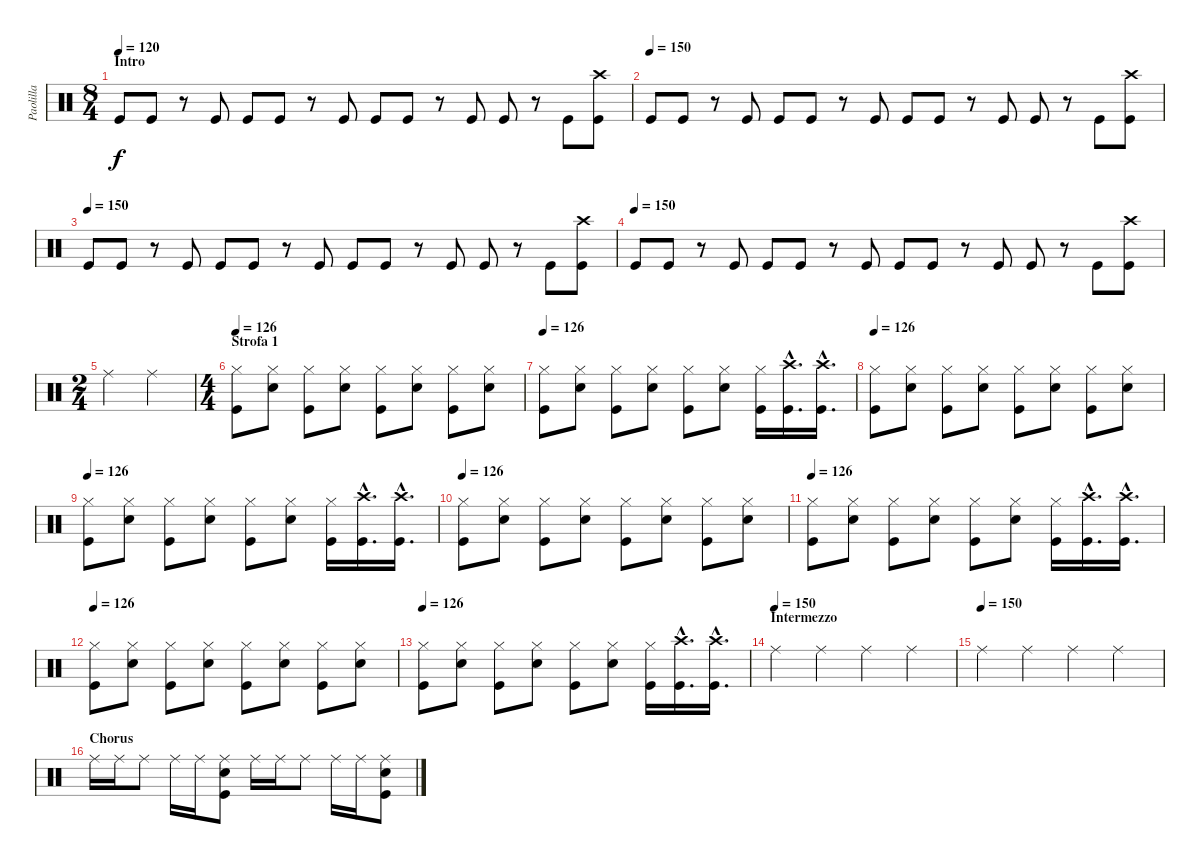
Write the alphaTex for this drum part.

\track ("Paolilla" "Paolilla") {instrument percussion}
\staff {score}
\articulation defaults
\ts (8 4)
\section ("" "Intro")
\tempo 120
\tempo 150
\tempo 120
\clef neutral
\ks c "Kick (hit)".8{dy f} "Kick (hit)".8
r.8 "Kick (hit)".8 "Kick (hit)".8 "Kick (hit)".8 r.8 "Kick (hit)".8 "Kick (hit)".8 "Kick (hit)".8 r.8 "Kick (hit)".8 "Kick (hit)".8 r.8 "Kick (hit)".8 ("Crash high (hit)" "Kick (hit)").8 |
\tempo (150)
"Kick (hit)".8 "Kick (hit)".8 r.8 "Kick (hit)".8 "Kick (hit)".8 "Kick (hit)".8 r.8 "Kick (hit)".8 "Kick (hit)".8 "Kick (hit)".8 r.8 "Kick (hit)".8 "Kick (hit)".8 r.8 "Kick (hit)".8 ("Crash high (hit)" "Kick (hit)").8 |
\tempo (150)
"Kick (hit)".8 "Kick (hit)".8 r.8 "Kick (hit)".8 "Kick (hit)".8 "Kick (hit)".8 r.8 "Kick (hit)".8 "Kick (hit)".8 "Kick (hit)".8 r.8 "Kick (hit)".8 "Kick (hit)".8 r.8 "Kick (hit)".8 ("Crash high (hit)" "Kick (hit)").8 |
\tempo (150)
"Kick (hit)".8 "Kick (hit)".8 r.8 "Kick (hit)".8 "Kick (hit)".8 "Kick (hit)".8 r.8 "Kick (hit)".8 "Kick (hit)".8 "Kick (hit)".8 r.8 "Kick (hit)".8 "Kick (hit)".8 r.8 "Kick (hit)".8 ("Crash high (hit)" "Kick (hit)").8 |
\ts (2 4)
"Ride (middle)".4 "Ride (middle)".4 |
\ts (4 4)
\section ("" "Strofa 1")
\tempo 126
("Hi-Hat (closed)" "Kick (hit)").8 ("Hi-Hat (closed)" "Snare (hit) 2").8 ("Hi-Hat (closed)" "Kick (hit)").8 ("Hi-Hat (closed)" "Snare (hit) 2").8 ("Hi-Hat (closed)" "Kick (hit)").8 ("Hi-Hat (closed)" "Snare (hit) 2").8 ("Hi-Hat (closed)" "Kick (hit)").8 ("Hi-Hat (closed)" "Snare (hit) 2").8 |
\tempo 126
("Hi-Hat (closed)" "Kick (hit)").8 ("Hi-Hat (closed)" "Snare (hit) 2").8 ("Hi-Hat (closed)" "Kick (hit)").8 ("Hi-Hat (closed)" "Snare (hit) 2").8 ("Hi-Hat (closed)" "Kick (hit)").8 ("Hi-Hat (closed)" "Snare (hit) 2").8 ("Hi-Hat (closed)" "Kick (hit)").16 ("Crash high (hit)"{hac} "Kick (hit)"{hac}).16{d} ("Crash high (hit)"{hac} "Kick (hit)"{hac}).16{d} |
\tempo 126
("Hi-Hat (closed)" "Kick (hit)").8 ("Hi-Hat (closed)" "Snare (hit) 2").8 ("Hi-Hat (closed)" "Kick (hit)").8 ("Hi-Hat (closed)" "Snare (hit) 2").8 ("Hi-Hat (closed)" "Kick (hit)").8 ("Hi-Hat (closed)" "Snare (hit) 2").8 ("Hi-Hat (closed)" "Kick (hit)").8 ("Hi-Hat (closed)" "Snare (hit) 2").8 |
\tempo 126
("Hi-Hat (closed)" "Kick (hit)").8 ("Hi-Hat (closed)" "Snare (hit) 2").8 ("Hi-Hat (closed)" "Kick (hit)").8 ("Hi-Hat (closed)" "Snare (hit) 2").8 ("Hi-Hat (closed)" "Kick (hit)").8 ("Hi-Hat (closed)" "Snare (hit) 2").8 ("Hi-Hat (closed)" "Kick (hit)").16 ("Crash high (hit)"{hac} "Kick (hit)"{hac}).16{d} ("Crash high (hit)"{hac} "Kick (hit)"{hac}).16{d} |
\tempo 126
("Hi-Hat (closed)" "Kick (hit)").8 ("Hi-Hat (closed)" "Snare (hit) 2").8 ("Hi-Hat (closed)" "Kick (hit)").8 ("Hi-Hat (closed)" "Snare (hit) 2").8 ("Hi-Hat (closed)" "Kick (hit)").8 ("Hi-Hat (closed)" "Snare (hit) 2").8 ("Hi-Hat (closed)" "Kick (hit)").8 ("Hi-Hat (closed)" "Snare (hit) 2").8 |
\tempo 126
("Hi-Hat (closed)" "Kick (hit)").8 ("Hi-Hat (closed)" "Snare (hit) 2").8 ("Hi-Hat (closed)" "Kick (hit)").8 ("Hi-Hat (closed)" "Snare (hit) 2").8 ("Hi-Hat (closed)" "Kick (hit)").8 ("Hi-Hat (closed)" "Snare (hit) 2").8 ("Hi-Hat (closed)" "Kick (hit)").16 ("Crash high (hit)"{hac} "Kick (hit)"{hac}).16{d} ("Crash high (hit)"{hac} "Kick (hit)"{hac}).16{d} |
\tempo 126
("Hi-Hat (closed)" "Kick (hit)").8 ("Hi-Hat (closed)" "Snare (hit) 2").8 ("Hi-Hat (closed)" "Kick (hit)").8 ("Hi-Hat (closed)" "Snare (hit) 2").8 ("Hi-Hat (closed)" "Kick (hit)").8 ("Hi-Hat (closed)" "Snare (hit) 2").8 ("Hi-Hat (closed)" "Kick (hit)").8 ("Hi-Hat (closed)" "Snare (hit) 2").8 |
\tempo 126
("Hi-Hat (closed)" "Kick (hit)").8 ("Hi-Hat (closed)" "Snare (hit) 2").8 ("Hi-Hat (closed)" "Kick (hit)").8 ("Hi-Hat (closed)" "Snare (hit) 2").8 ("Hi-Hat (closed)" "Kick (hit)").8 ("Hi-Hat (closed)" "Snare (hit) 2").8 ("Hi-Hat (closed)" "Kick (hit)").16 ("Crash high (hit)"{hac} "Kick (hit)"{hac}).16{d} ("Crash high (hit)"{hac} "Kick (hit)"{hac}).16{d} |
\section ("" "Intermezzo")
\tempo (150)
"Ride (middle)".4 "Ride (middle)".4 "Ride (middle)".4 "Ride (middle)".4 |
\tempo (150)
"Ride (middle)".4 "Ride (middle)".4 "Ride (middle)".4 "Ride (middle)".4 |
\section ("" "Chorus")
"Ride (middle)".16 "Ride (middle)".16 "Ride (middle)".8 "Ride (middle)".16 "Ride (middle)".16 ("Ride (middle)" "Snare (hit) 2" "Kick (hit)").8 "Ride (middle)".16 "Ride (middle)".16 "Ride (middle)".8 "Ride (middle)".16 "Ride (middle)".16 ("Ride (middle)" "Snare (hit) 2" "Kick (hit)").8
